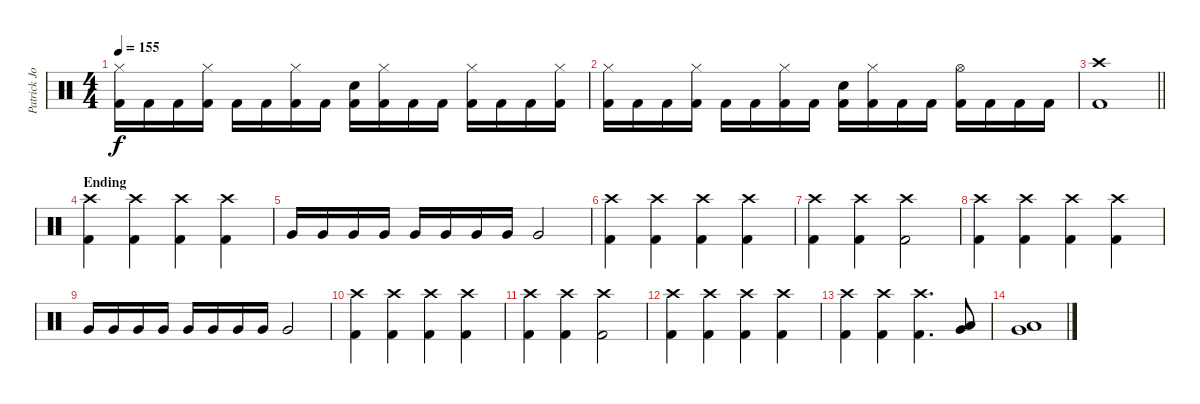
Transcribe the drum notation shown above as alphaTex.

\track ("Patrick Johansson" "Patrick Jo") {instrument percussion}
\staff {score}
\articulation defaults
\ts (4 4)
\tempo 155
\clef neutral
\ks c
("Hi-Hat (closed)" "Kick (hit) 2").16{dy f} "Kick (hit) 2".16 "Kick (hit) 2".16 ("Hi-Hat (closed)" "Kick (hit) 2").16 "Kick (hit) 2".16 "Kick (hit) 2".16 ("Hi-Hat (closed)" "Kick (hit) 2").16 "Kick (hit) 2".16 ("Electric Snare (hit)" "Kick (hit) 2").16 ("Hi-Hat (closed)" "Kick (hit) 2").16 "Kick (hit) 2".16 "Kick (hit) 2".16 ("Hi-Hat (closed)" "Kick (hit) 2").16 "Kick (hit) 2".16 "Kick (hit) 2".16 ("Hi-Hat (closed)" "Kick (hit) 2").16 |
("Hi-Hat (closed)" "Kick (hit) 2").16 "Kick (hit) 2".16 "Kick (hit) 2".16 ("Hi-Hat (closed)" "Kick (hit) 2").16 "Kick (hit) 2".16 "Kick (hit) 2".16 ("Hi-Hat (closed)" "Kick (hit) 2").16 "Kick (hit) 2".16 ("Electric Snare (hit)" "Kick (hit) 2").16 ("Hi-Hat (closed)" "Kick (hit) 2").16 "Kick (hit) 2".16 "Kick (hit) 2".16 ("Hi-Hat (open)" "Kick (hit) 2").16 "Kick (hit) 2".16 "Kick (hit) 2".16 "Kick (hit) 2".16 |
\barLineRight lightlight
("Crash high (hit)" "Kick (hit) 2").1 |
\section ("" "Ending")
("Crash high (hit)" "Kick (hit) 2").4 ("Crash high (hit)" "Kick (hit) 2").4 ("Crash high (hit)" "Kick (hit) 2").4 ("Crash high (hit)" "Kick (hit) 2").4 |
"Very Low Tom (hit)".16 "Very Low Tom (hit)".16 "Very Low Tom (hit)".16 "Very Low Tom (hit)".16 "Very Low Tom (hit)".16 "Very Low Tom (hit)".16 "Very Low Tom (hit)".16 "Very Low Tom (hit)".16 "Very Low Tom (hit)".2 |
("Crash high (hit)" "Kick (hit) 2").4 ("Crash high (hit)" "Kick (hit) 2").4 ("Crash high (hit)" "Kick (hit) 2").4 ("Crash high (hit)" "Kick (hit) 2").4 |
("Crash high (hit)" "Kick (hit) 2").4 ("Crash high (hit)" "Kick (hit) 2").4 ("Crash high (hit)" "Kick (hit) 2").2 |
("Crash high (hit)" "Kick (hit) 2").4 ("Crash high (hit)" "Kick (hit) 2").4 ("Crash high (hit)" "Kick (hit) 2").4 ("Crash high (hit)" "Kick (hit) 2").4 |
"Very Low Tom (hit)".16 "Very Low Tom (hit)".16 "Very Low Tom (hit)".16 "Very Low Tom (hit)".16 "Very Low Tom (hit)".16 "Very Low Tom (hit)".16 "Very Low Tom (hit)".16 "Very Low Tom (hit)".16 "Very Low Tom (hit)".2 |
("Crash high (hit)" "Kick (hit) 2").4 ("Crash high (hit)" "Kick (hit) 2").4 ("Crash high (hit)" "Kick (hit) 2").4 ("Crash high (hit)" "Kick (hit) 2").4 |
("Crash high (hit)" "Kick (hit) 2").4 ("Crash high (hit)" "Kick (hit) 2").4 ("Crash high (hit)" "Kick (hit) 2").2 |
("Crash high (hit)" "Kick (hit) 2").4 ("Crash high (hit)" "Kick (hit) 2").4 ("Crash high (hit)" "Kick (hit) 2").4 ("Crash high (hit)" "Kick (hit) 2").4 |
("Crash high (hit)" "Kick (hit) 2").4 ("Crash high (hit)" "Kick (hit) 2").4 ("Crash high (hit)" "Kick (hit) 2").4{d} ("Low Tom (hit)" "Very Low Tom (hit)").8 |
("Low Tom (hit)" "Very Low Tom (hit)").1
